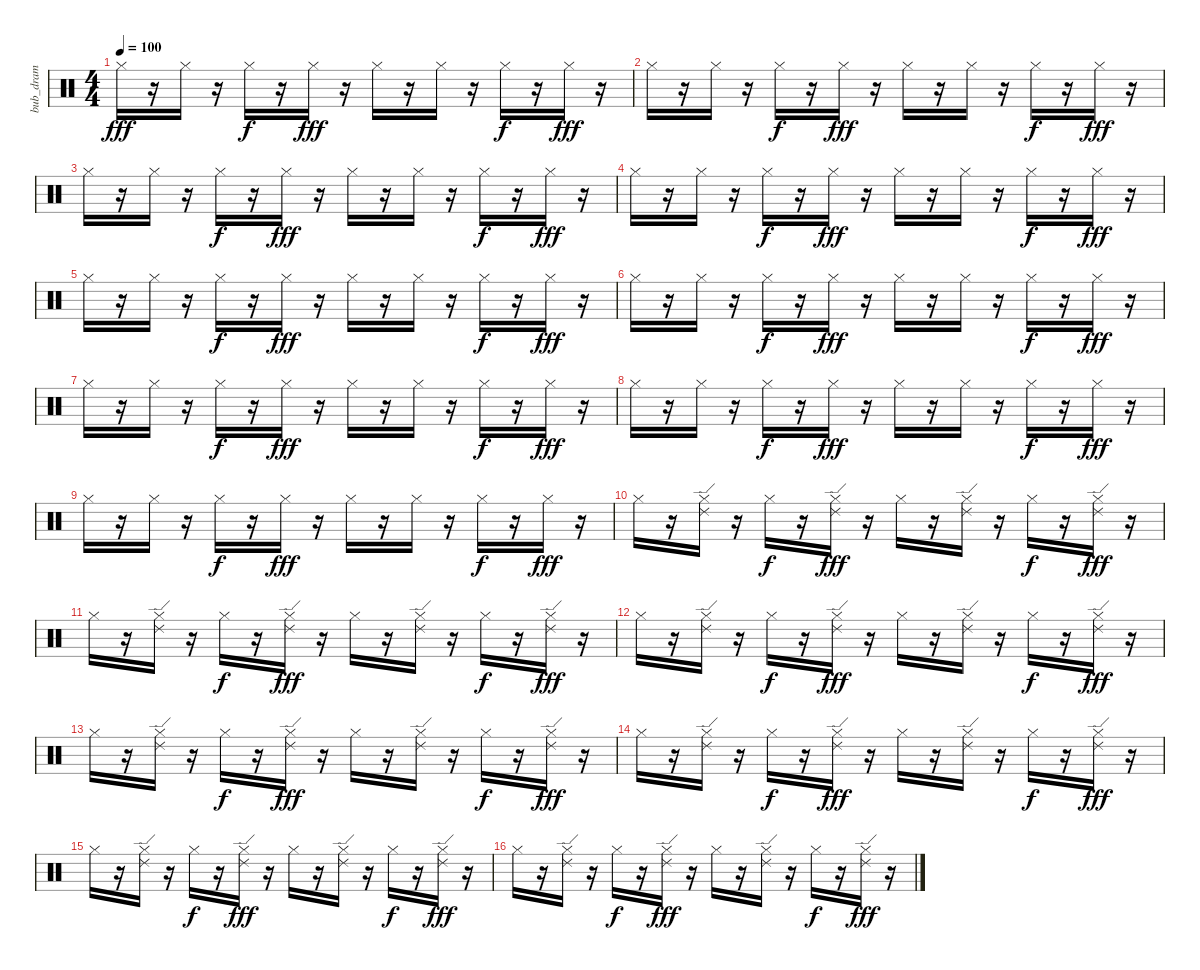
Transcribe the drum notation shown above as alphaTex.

\track ("bub_dram" "bub_dram") {instrument percussion}
\staff {score}
\articulation defaults
\ts (4 4)
\tempo 100
\clef neutral
\ks c "Hi-Hat (closed)".16{dy fff}
r.16 "Hi-Hat (closed)".16 r.16 "Hi-Hat (closed)".16{dy f} r.16 "Hi-Hat (closed)".16{dy fff} r.16 "Hi-Hat (closed)".16 r.16 "Hi-Hat (closed)".16 r.16 "Hi-Hat (closed)".16{dy f} r.16 "Hi-Hat (closed)".16{dy fff} r.16 |
"Hi-Hat (closed)".16 r.16 "Hi-Hat (closed)".16 r.16 "Hi-Hat (closed)".16{dy f} r.16 "Hi-Hat (closed)".16{dy fff} r.16 "Hi-Hat (closed)".16 r.16 "Hi-Hat (closed)".16 r.16 "Hi-Hat (closed)".16{dy f} r.16 "Hi-Hat (closed)".16{dy fff} r.16 |
"Hi-Hat (closed)".16 r.16 "Hi-Hat (closed)".16 r.16 "Hi-Hat (closed)".16{dy f} r.16 "Hi-Hat (closed)".16{dy fff} r.16 "Hi-Hat (closed)".16 r.16 "Hi-Hat (closed)".16 r.16 "Hi-Hat (closed)".16{dy f} r.16 "Hi-Hat (closed)".16{dy fff} r.16 |
"Hi-Hat (closed)".16 r.16 "Hi-Hat (closed)".16 r.16 "Hi-Hat (closed)".16{dy f} r.16 "Hi-Hat (closed)".16{dy fff} r.16 "Hi-Hat (closed)".16 r.16 "Hi-Hat (closed)".16 r.16 "Hi-Hat (closed)".16{dy f} r.16 "Hi-Hat (closed)".16{dy fff} r.16 |
"Hi-Hat (closed)".16 r.16 "Hi-Hat (closed)".16 r.16 "Hi-Hat (closed)".16{dy f} r.16 "Hi-Hat (closed)".16{dy fff} r.16 "Hi-Hat (closed)".16 r.16 "Hi-Hat (closed)".16 r.16 "Hi-Hat (closed)".16{dy f} r.16 "Hi-Hat (closed)".16{dy fff} r.16 |
"Hi-Hat (closed)".16 r.16 "Hi-Hat (closed)".16 r.16 "Hi-Hat (closed)".16{dy f} r.16 "Hi-Hat (closed)".16{dy fff} r.16 "Hi-Hat (closed)".16 r.16 "Hi-Hat (closed)".16 r.16 "Hi-Hat (closed)".16{dy f} r.16 "Hi-Hat (closed)".16{dy fff} r.16 |
"Hi-Hat (closed)".16 r.16 "Hi-Hat (closed)".16 r.16 "Hi-Hat (closed)".16{dy f} r.16 "Hi-Hat (closed)".16{dy fff} r.16 "Hi-Hat (closed)".16 r.16 "Hi-Hat (closed)".16 r.16 "Hi-Hat (closed)".16{dy f} r.16 "Hi-Hat (closed)".16{dy fff} r.16 |
"Hi-Hat (closed)".16 r.16 "Hi-Hat (closed)".16 r.16 "Hi-Hat (closed)".16{dy f} r.16 "Hi-Hat (closed)".16{dy fff} r.16 "Hi-Hat (closed)".16 r.16 "Hi-Hat (closed)".16 r.16 "Hi-Hat (closed)".16{dy f} r.16 "Hi-Hat (closed)".16{dy fff} r.16 |
"Hi-Hat (closed)".16 r.16 "Hi-Hat (closed)".16 r.16 "Hi-Hat (closed)".16{dy f} r.16 "Hi-Hat (closed)".16{dy fff} r.16 "Hi-Hat (closed)".16 r.16 "Hi-Hat (closed)".16 r.16 "Hi-Hat (closed)".16{dy f} r.16 "Hi-Hat (closed)".16{dy fff} r.16 |
"Hi-Hat (closed)".16 r.16 ("Ride (edge) 2" "Hi-Hat (closed)").16 r.16 "Hi-Hat (closed)".16{dy f} r.16 ("Ride (edge) 2" "Hi-Hat (closed)").16{dy fff} r.16 "Hi-Hat (closed)".16 r.16 ("Ride (edge) 2" "Hi-Hat (closed)").16 r.16 "Hi-Hat (closed)".16{dy f} r.16 ("Ride (edge) 2" "Hi-Hat (closed)").16{dy fff} r.16 |
"Hi-Hat (closed)".16 r.16 ("Ride (edge) 2" "Hi-Hat (closed)").16 r.16 "Hi-Hat (closed)".16{dy f} r.16 ("Ride (edge) 2" "Hi-Hat (closed)").16{dy fff} r.16 "Hi-Hat (closed)".16 r.16 ("Ride (edge) 2" "Hi-Hat (closed)").16 r.16 "Hi-Hat (closed)".16{dy f} r.16 ("Ride (edge) 2" "Hi-Hat (closed)").16{dy fff} r.16 |
"Hi-Hat (closed)".16 r.16 ("Ride (edge) 2" "Hi-Hat (closed)").16 r.16 "Hi-Hat (closed)".16{dy f} r.16 ("Ride (edge) 2" "Hi-Hat (closed)").16{dy fff} r.16 "Hi-Hat (closed)".16 r.16 ("Ride (edge) 2" "Hi-Hat (closed)").16 r.16 "Hi-Hat (closed)".16{dy f} r.16 ("Ride (edge) 2" "Hi-Hat (closed)").16{dy fff} r.16 |
"Hi-Hat (closed)".16 r.16 ("Ride (edge) 2" "Hi-Hat (closed)").16 r.16 "Hi-Hat (closed)".16{dy f} r.16 ("Ride (edge) 2" "Hi-Hat (closed)").16{dy fff} r.16 "Hi-Hat (closed)".16 r.16 ("Ride (edge) 2" "Hi-Hat (closed)").16 r.16 "Hi-Hat (closed)".16{dy f} r.16 ("Ride (edge) 2" "Hi-Hat (closed)").16{dy fff} r.16 |
"Hi-Hat (closed)".16 r.16 ("Ride (edge) 2" "Hi-Hat (closed)").16 r.16 "Hi-Hat (closed)".16{dy f} r.16 ("Ride (edge) 2" "Hi-Hat (closed)").16{dy fff} r.16 "Hi-Hat (closed)".16 r.16 ("Ride (edge) 2" "Hi-Hat (closed)").16 r.16 "Hi-Hat (closed)".16{dy f} r.16 ("Ride (edge) 2" "Hi-Hat (closed)").16{dy fff} r.16 |
"Hi-Hat (closed)".16 r.16 ("Ride (edge) 2" "Hi-Hat (closed)").16 r.16 "Hi-Hat (closed)".16{dy f} r.16 ("Ride (edge) 2" "Hi-Hat (closed)").16{dy fff} r.16 "Hi-Hat (closed)".16 r.16 ("Ride (edge) 2" "Hi-Hat (closed)").16 r.16 "Hi-Hat (closed)".16{dy f} r.16 ("Ride (edge) 2" "Hi-Hat (closed)").16{dy fff} r.16 |
"Hi-Hat (closed)".16 r.16 ("Ride (edge) 2" "Hi-Hat (closed)").16 r.16 "Hi-Hat (closed)".16{dy f} r.16 ("Ride (edge) 2" "Hi-Hat (closed)").16{dy fff} r.16 "Hi-Hat (closed)".16 r.16 ("Ride (edge) 2" "Hi-Hat (closed)").16 r.16 "Hi-Hat (closed)".16{dy f} r.16 ("Ride (edge) 2" "Hi-Hat (closed)").16{dy fff} r.16
